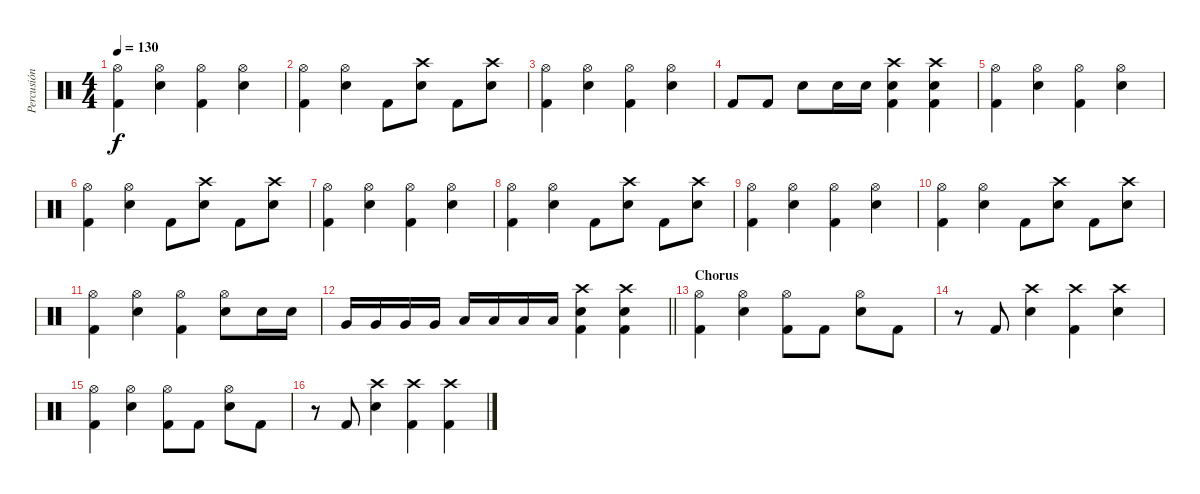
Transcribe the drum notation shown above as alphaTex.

\track ("Percusión" "Percusión") {instrument percussion}
\staff
\articulation defaults
\ts (4 4)
\tempo 130
\clef neutral
\ks c
("Hi-Hat (open)" "Kick (hit) 2").4{dy f} ("Hi-Hat (open)" "Snare (hit) 2").4 ("Hi-Hat (open)" "Kick (hit) 2").4 ("Hi-Hat (open)" "Snare (hit) 2").4 |
("Hi-Hat (open)" "Kick (hit) 2").4 ("Hi-Hat (open)" "Snare (hit) 2").4 "Kick (hit) 2".8 ("Crash high (hit)" "Snare (hit) 2").8 "Kick (hit) 2".8 ("Crash high (hit)" "Snare (hit) 2").8 |
("Hi-Hat (open)" "Kick (hit) 2").4 ("Hi-Hat (open)" "Snare (hit) 2").4 ("Hi-Hat (open)" "Kick (hit) 2").4 ("Hi-Hat (open)" "Snare (hit) 2").4 |
"Kick (hit) 2".8 "Kick (hit) 2".8 "Snare (hit) 2".8 "Snare (hit) 2".16 "Snare (hit) 2".16 ("Crash high (hit)" "Snare (hit) 2" "Kick (hit) 2").4 ("Crash high (hit)" "Snare (hit) 2" "Kick (hit) 2").4 |
("Hi-Hat (open)" "Kick (hit) 2").4 ("Hi-Hat (open)" "Snare (hit) 2").4 ("Hi-Hat (open)" "Kick (hit) 2").4 ("Hi-Hat (open)" "Snare (hit) 2").4 |
("Hi-Hat (open)" "Kick (hit) 2").4 ("Hi-Hat (open)" "Snare (hit) 2").4 "Kick (hit) 2".8 ("Crash high (hit)" "Snare (hit) 2").8 "Kick (hit) 2".8 ("Crash high (hit)" "Snare (hit) 2").8 |
("Hi-Hat (open)" "Kick (hit) 2").4 ("Hi-Hat (open)" "Snare (hit) 2").4 ("Hi-Hat (open)" "Kick (hit) 2").4 ("Hi-Hat (open)" "Snare (hit) 2").4 |
("Hi-Hat (open)" "Kick (hit) 2").4 ("Hi-Hat (open)" "Snare (hit) 2").4 "Kick (hit) 2".8 ("Crash high (hit)" "Snare (hit) 2").8 "Kick (hit) 2".8 ("Crash high (hit)" "Snare (hit) 2").8 |
("Hi-Hat (open)" "Kick (hit) 2").4 ("Hi-Hat (open)" "Snare (hit) 2").4 ("Hi-Hat (open)" "Kick (hit) 2").4 ("Hi-Hat (open)" "Snare (hit) 2").4 |
("Hi-Hat (open)" "Kick (hit) 2").4 ("Hi-Hat (open)" "Snare (hit) 2").4 "Kick (hit) 2".8 ("Crash high (hit)" "Snare (hit) 2").8 "Kick (hit) 2".8 ("Crash high (hit)" "Snare (hit) 2").8 |
("Hi-Hat (open)" "Kick (hit) 2").4 ("Hi-Hat (open)" "Snare (hit) 2").4 ("Hi-Hat (open)" "Kick (hit) 2").4 ("Hi-Hat (open)" "Snare (hit) 2").8 "Snare (hit) 2".16 "Snare (hit) 2".16 |
\barLineRight lightlight "Very Low Tom (hit)".16 "Very Low Tom (hit)".16 "Very Low Tom (hit)".16 "Very Low Tom (hit)".16 "Low Floor Tom (hit)".16 "Low Floor Tom (hit)".16 "Low Floor Tom (hit)".16 "Low Floor Tom (hit)".16
("Crash high (hit)" "Snare (hit) 2" "Kick (hit) 2").4 ("Crash high (hit)" "Snare (hit) 2" "Kick (hit) 2").4 |
\section ("" "Chorus")
("Hi-Hat (open)" "Kick (hit) 2").4 ("Hi-Hat (open)" "Snare (hit) 2").4 ("Hi-Hat (open)" "Kick (hit) 2").8 "Kick (hit) 2".8 ("Hi-Hat (open)" "Snare (hit) 2").8 "Kick (hit) 2".8 |
r.8 "Kick (hit) 2".8 ("Crash high (hit)" "Snare (hit) 2").4 ("Crash high (hit)" "Kick (hit) 2").4 ("Crash high (hit)" "Snare (hit) 2").4 |
("Hi-Hat (open)" "Kick (hit) 2").4 ("Hi-Hat (open)" "Snare (hit) 2").4 ("Hi-Hat (open)" "Kick (hit) 2").8 "Kick (hit) 2".8 ("Hi-Hat (open)" "Snare (hit) 2").8 "Kick (hit) 2".8 |
r.8 "Kick (hit) 2".8 ("Crash high (hit)" "Snare (hit) 2").4 ("Crash high (hit)" "Kick (hit) 2").4 ("Crash high (hit)" "Kick (hit) 2").4
